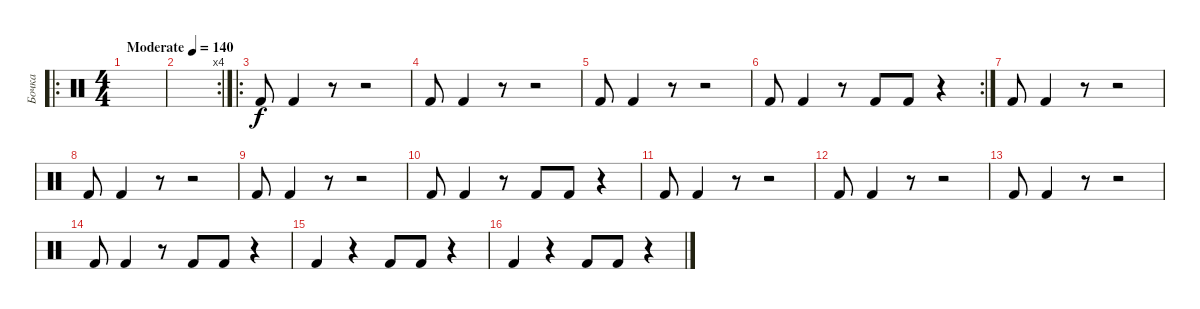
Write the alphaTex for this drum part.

\track ("Бочка" "Бочка") {instrument percussion}
\staff {score}
\articulation defaults
\ro
\ts (4 4)
\tempo (140 "Moderate")
\clef neutral
\ks c
|
\rc 4
|
\ro "Kick (hit) 2".8 "Kick (hit) 2".4
r.8 r.2 |
"Kick (hit) 2".8 "Kick (hit) 2".4 r.8 r.2 |
"Kick (hit) 2".8 "Kick (hit) 2".4 r.8 r.2 |
\rc 2 "Kick (hit) 2".8 "Kick (hit) 2".4
r.8 "Kick (hit) 2".8 "Kick (hit) 2".8 r.4 |
"Kick (hit) 2".8 "Kick (hit) 2".4 r.8 r.2 |
"Kick (hit) 2".8 "Kick (hit) 2".4 r.8 r.2 |
"Kick (hit) 2".8 "Kick (hit) 2".4 r.8 r.2 |
"Kick (hit) 2".8 "Kick (hit) 2".4 r.8 "Kick (hit) 2".8 "Kick (hit) 2".8 r.4 |
"Kick (hit) 2".8 "Kick (hit) 2".4 r.8 r.2 |
"Kick (hit) 2".8 "Kick (hit) 2".4 r.8 r.2 |
"Kick (hit) 2".8 "Kick (hit) 2".4 r.8 r.2 |
"Kick (hit) 2".8 "Kick (hit) 2".4 r.8 "Kick (hit) 2".8 "Kick (hit) 2".8 r.4 |
"Kick (hit) 2".4 r.4 "Kick (hit) 2".8 "Kick (hit) 2".8 r.4 |
"Kick (hit) 2".4 r.4 "Kick (hit) 2".8 "Kick (hit) 2".8 r.4
